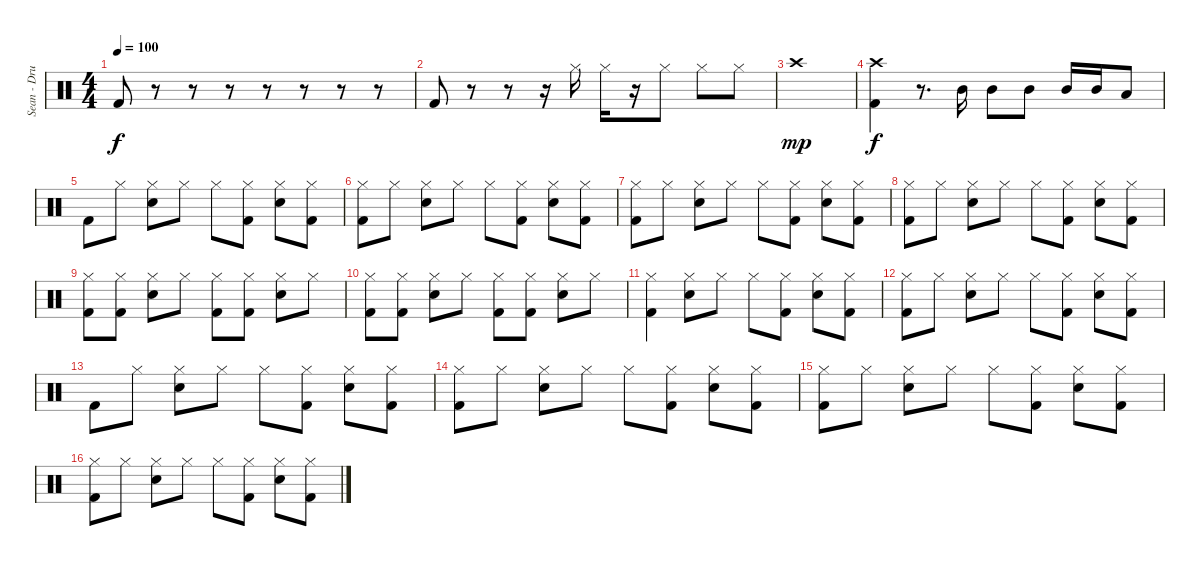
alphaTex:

\track ("Sean - Drums" "Sean - Dru") {instrument percussion}
\staff {score}
\articulation defaults
\ts (4 4)
\tempo 100
\clef neutral
\ks c "Kick (hit) 2".8{dy f}
r.8 r.8 r.8 r.8 r.8 r.8 r.8 |
"Kick (hit) 2".8 r.8 r.8 r.16 "Hi-Hat (closed)".16 "Hi-Hat (closed)".16 r.16 "Hi-Hat (closed)".8 "Hi-Hat (closed)".8 "Hi-Hat (closed)".8 |
"Crash high (hit)".1{dy mp} |
("Crash high (hit)" "Kick (hit) 2").4{dy f} r.8{d} "Mid Tom (hit)".16 "Mid Tom (hit)".8 "Mid Tom (hit)".8 "Mid Tom (hit)".16 "Mid Tom (hit)".16 "Low Tom (hit)".8 |
"Kick (hit) 2".8 "Hi-Hat (closed)".8 ("Hi-Hat (closed)" "Electric Snare (hit)").8 "Hi-Hat (closed)".8 "Hi-Hat (closed)".8 ("Hi-Hat (closed)" "Kick (hit) 2").8 ("Hi-Hat (closed)" "Electric Snare (hit)").8 ("Hi-Hat (closed)" "Kick (hit) 2").8 |
("Hi-Hat (closed)" "Kick (hit) 2").8 "Hi-Hat (closed)".8 ("Hi-Hat (closed)" "Electric Snare (hit)").8 "Hi-Hat (closed)".8 "Hi-Hat (closed)".8 ("Hi-Hat (closed)" "Kick (hit) 2").8 ("Hi-Hat (closed)" "Electric Snare (hit)").8 ("Hi-Hat (closed)" "Kick (hit) 2").8 |
("Hi-Hat (closed)" "Kick (hit) 2").8 "Hi-Hat (closed)".8 ("Hi-Hat (closed)" "Electric Snare (hit)").8 "Hi-Hat (closed)".8 "Hi-Hat (closed)".8 ("Hi-Hat (closed)" "Kick (hit) 2").8 ("Hi-Hat (closed)" "Electric Snare (hit)").8 ("Hi-Hat (closed)" "Kick (hit) 2").8 |
("Hi-Hat (closed)" "Kick (hit) 2").8 "Hi-Hat (closed)".8 ("Hi-Hat (closed)" "Electric Snare (hit)").8 "Hi-Hat (closed)".8 "Hi-Hat (closed)".8 ("Hi-Hat (closed)" "Kick (hit) 2").8 ("Hi-Hat (closed)" "Electric Snare (hit)").8 ("Hi-Hat (closed)" "Kick (hit) 2").8 |
("Hi-Hat (closed)" "Kick (hit) 2").8 ("Hi-Hat (closed)" "Kick (hit) 2").8 ("Hi-Hat (closed)" "Electric Snare (hit)").8 "Hi-Hat (closed)".8 ("Hi-Hat (closed)" "Kick (hit) 2").8 ("Hi-Hat (closed)" "Kick (hit) 2").8 ("Hi-Hat (closed)" "Electric Snare (hit)").8 "Hi-Hat (closed)".8 |
("Hi-Hat (closed)" "Kick (hit) 2").8 ("Hi-Hat (closed)" "Kick (hit) 2").8 ("Hi-Hat (closed)" "Electric Snare (hit)").8 "Hi-Hat (closed)".8 ("Hi-Hat (closed)" "Kick (hit) 2").8 ("Hi-Hat (closed)" "Kick (hit) 2").8 ("Hi-Hat (closed)" "Electric Snare (hit)").8 "Hi-Hat (closed)".8 |
("Hi-Hat (closed)" "Kick (hit) 2").4 ("Hi-Hat (closed)" "Electric Snare (hit)").8 "Hi-Hat (closed)".8 "Hi-Hat (closed)".8 ("Hi-Hat (closed)" "Kick (hit) 2").8 ("Hi-Hat (closed)" "Electric Snare (hit)").8 ("Hi-Hat (closed)" "Kick (hit) 2").8 |
("Hi-Hat (closed)" "Kick (hit) 2").8 "Hi-Hat (closed)".8 ("Hi-Hat (closed)" "Electric Snare (hit)").8 "Hi-Hat (closed)".8 "Hi-Hat (closed)".8 ("Hi-Hat (closed)" "Kick (hit) 2").8 ("Hi-Hat (closed)" "Electric Snare (hit)").8 ("Hi-Hat (closed)" "Kick (hit) 2").8 |
"Kick (hit) 2".8 "Hi-Hat (closed)".8 ("Hi-Hat (closed)" "Electric Snare (hit)").8 "Hi-Hat (closed)".8 "Hi-Hat (closed)".8 ("Hi-Hat (closed)" "Kick (hit) 2").8 ("Hi-Hat (closed)" "Electric Snare (hit)").8 ("Hi-Hat (closed)" "Kick (hit) 2").8 |
("Hi-Hat (closed)" "Kick (hit) 2").8 "Hi-Hat (closed)".8 ("Hi-Hat (closed)" "Electric Snare (hit)").8 "Hi-Hat (closed)".8 "Hi-Hat (closed)".8 ("Hi-Hat (closed)" "Kick (hit) 2").8 ("Hi-Hat (closed)" "Electric Snare (hit)").8 ("Hi-Hat (closed)" "Kick (hit) 2").8 |
("Hi-Hat (closed)" "Kick (hit) 2").8 "Hi-Hat (closed)".8 ("Hi-Hat (closed)" "Electric Snare (hit)").8 "Hi-Hat (closed)".8 "Hi-Hat (closed)".8 ("Hi-Hat (closed)" "Kick (hit) 2").8 ("Hi-Hat (closed)" "Electric Snare (hit)").8 ("Hi-Hat (closed)" "Kick (hit) 2").8 |
("Hi-Hat (closed)" "Kick (hit) 2").8 "Hi-Hat (closed)".8 ("Hi-Hat (closed)" "Electric Snare (hit)").8 "Hi-Hat (closed)".8 "Hi-Hat (closed)".8 ("Hi-Hat (closed)" "Kick (hit) 2").8 ("Hi-Hat (closed)" "Electric Snare (hit)").8 ("Hi-Hat (closed)" "Kick (hit) 2").8
